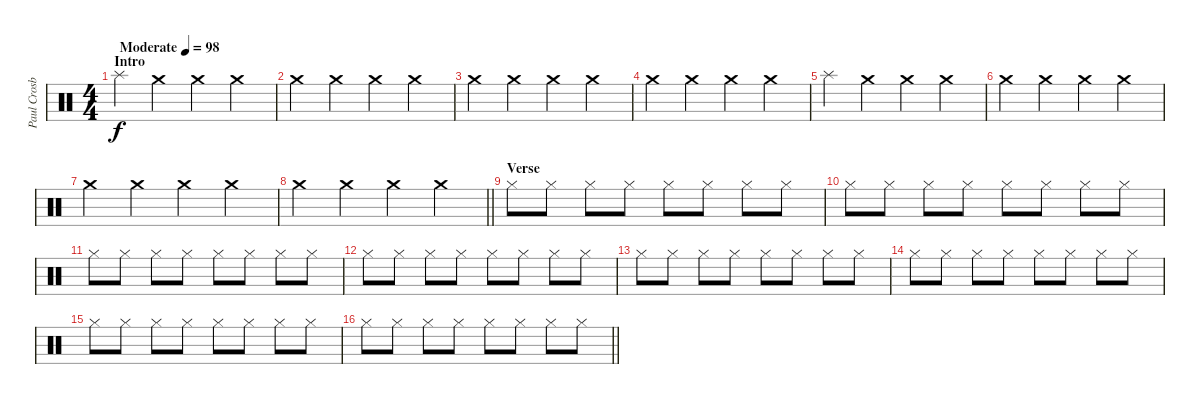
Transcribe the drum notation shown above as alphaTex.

\track ("Paul Crosby (Drums)" "Paul Crosb") {instrument percussion}
\staff {score}
\articulation defaults
\ts (4 4)
\section ("" "Intro")
\tempo (98 "Moderate")
\clef neutral
\ks c "Splash (hit)".4{dy f} "Crash medium (hit)".4 "Crash medium (hit)".4 "Crash medium (hit)".4
|
"Crash medium (hit)".4 "Crash medium (hit)".4 "Crash medium (hit)".4 "Crash medium (hit)".4 |
"Crash medium (hit)".4 "Crash medium (hit)".4 "Crash medium (hit)".4 "Crash medium (hit)".4 |
"Crash medium (hit)".4 "Crash medium (hit)".4 "Crash medium (hit)".4 "Crash medium (hit)".4 |
"Splash (hit)".4 "Crash medium (hit)".4 "Crash medium (hit)".4 "Crash medium (hit)".4 |
"Crash medium (hit)".4 "Crash medium (hit)".4 "Crash medium (hit)".4 "Crash medium (hit)".4 |
"Crash medium (hit)".4 "Crash medium (hit)".4 "Crash medium (hit)".4 "Crash medium (hit)".4 |
\barLineRight lightlight "Crash medium (hit)".4 "Crash medium (hit)".4 "Crash medium (hit)".4 "Crash medium (hit)".4
|
\section ("" "Verse")
"Hi-Hat (closed)".8 "Hi-Hat (closed)".8 "Hi-Hat (closed)".8 "Hi-Hat (closed)".8 "Hi-Hat (closed)".8 "Hi-Hat (closed)".8 "Hi-Hat (closed)".8 "Hi-Hat (closed)".8 |
"Hi-Hat (closed)".8 "Hi-Hat (closed)".8 "Hi-Hat (closed)".8 "Hi-Hat (closed)".8 "Hi-Hat (closed)".8 "Hi-Hat (closed)".8 "Hi-Hat (closed)".8 "Hi-Hat (closed)".8 |
"Hi-Hat (closed)".8 "Hi-Hat (closed)".8 "Hi-Hat (closed)".8 "Hi-Hat (closed)".8 "Hi-Hat (closed)".8 "Hi-Hat (closed)".8 "Hi-Hat (closed)".8 "Hi-Hat (closed)".8 |
"Hi-Hat (closed)".8 "Hi-Hat (closed)".8 "Hi-Hat (closed)".8 "Hi-Hat (closed)".8 "Hi-Hat (closed)".8 "Hi-Hat (closed)".8 "Hi-Hat (closed)".8 "Hi-Hat (closed)".8 |
"Hi-Hat (closed)".8 "Hi-Hat (closed)".8 "Hi-Hat (closed)".8 "Hi-Hat (closed)".8 "Hi-Hat (closed)".8 "Hi-Hat (closed)".8 "Hi-Hat (closed)".8 "Hi-Hat (closed)".8 |
"Hi-Hat (closed)".8 "Hi-Hat (closed)".8 "Hi-Hat (closed)".8 "Hi-Hat (closed)".8 "Hi-Hat (closed)".8 "Hi-Hat (closed)".8 "Hi-Hat (closed)".8 "Hi-Hat (closed)".8 |
"Hi-Hat (closed)".8 "Hi-Hat (closed)".8 "Hi-Hat (closed)".8 "Hi-Hat (closed)".8 "Hi-Hat (closed)".8 "Hi-Hat (closed)".8 "Hi-Hat (closed)".8 "Hi-Hat (closed)".8 |
\barLineRight lightlight "Hi-Hat (closed)".8 "Hi-Hat (closed)".8 "Hi-Hat (closed)".8 "Hi-Hat (closed)".8 "Hi-Hat (closed)".8 "Hi-Hat (closed)".8 "Hi-Hat (closed)".8 "Hi-Hat (closed)".8
